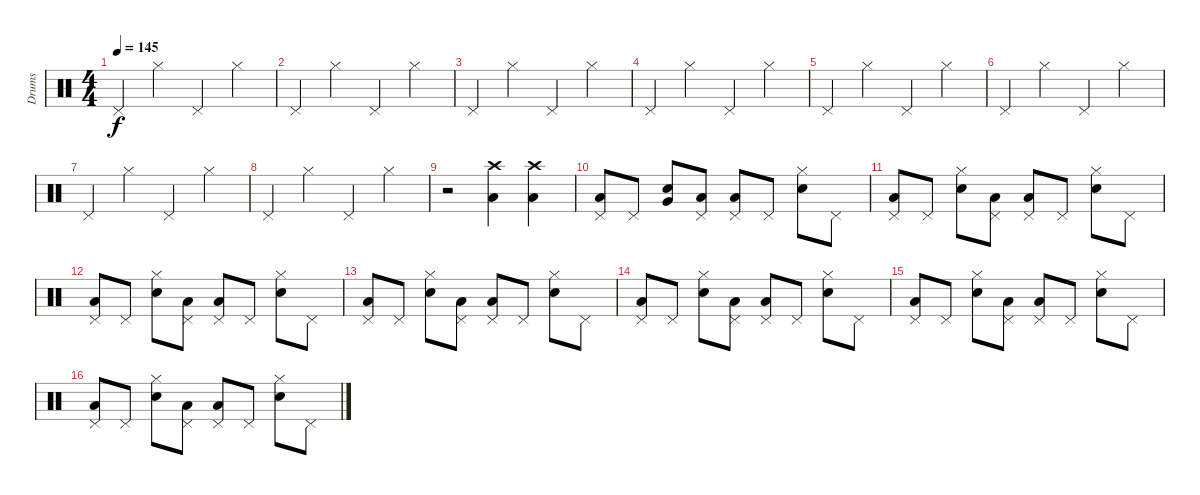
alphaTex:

\track ("Drums" "Drums") {instrument percussion}
\staff {score}
\articulation defaults
\ts (4 4)
\tempo 145
\clef neutral
\ks c "Pedal Hi-Hat (hit)".4{dy f} "Hi-Hat (closed)".4 "Pedal Hi-Hat (hit)".4 "Hi-Hat (closed)".4
|
"Pedal Hi-Hat (hit)".4 "Hi-Hat (closed)".4 "Pedal Hi-Hat (hit)".4 "Hi-Hat (closed)".4 |
"Pedal Hi-Hat (hit)".4 "Hi-Hat (closed)".4 "Pedal Hi-Hat (hit)".4 "Hi-Hat (closed)".4 |
"Pedal Hi-Hat (hit)".4 "Hi-Hat (closed)".4 "Pedal Hi-Hat (hit)".4 "Hi-Hat (closed)".4 |
"Pedal Hi-Hat (hit)".4 "Hi-Hat (closed)".4 "Pedal Hi-Hat (hit)".4 "Hi-Hat (closed)".4 |
"Pedal Hi-Hat (hit)".4 "Hi-Hat (closed)".4 "Pedal Hi-Hat (hit)".4 "Hi-Hat (closed)".4 |
"Pedal Hi-Hat (hit)".4 "Hi-Hat (closed)".4 "Pedal Hi-Hat (hit)".4 "Hi-Hat (closed)".4 |
"Pedal Hi-Hat (hit)".4 "Hi-Hat (closed)".4 "Pedal Hi-Hat (hit)".4 "Hi-Hat (closed)".4 |
r.2 ("Low Floor Tom (hit)" "Crash high (hit)").4 ("Low Floor Tom (hit)" "Crash high (hit)").4 |
("Low Floor Tom (hit)" "Pedal Hi-Hat (hit)").8 "Pedal Hi-Hat (hit)".8 ("Snare (hit) 2" "Very Low Tom (hit)").8 ("Low Floor Tom (hit)" "Pedal Hi-Hat (hit)").8 ("Low Floor Tom (hit)" "Pedal Hi-Hat (hit)").8 "Pedal Hi-Hat (hit)".8 ("Snare (hit) 2" "Hi-Hat (closed)").8 "Pedal Hi-Hat (hit)".8 |
("Low Floor Tom (hit)" "Pedal Hi-Hat (hit)").8 "Pedal Hi-Hat (hit)".8 ("Snare (hit) 2" "Hi-Hat (closed)").8 ("Low Floor Tom (hit)" "Pedal Hi-Hat (hit)").8 ("Low Floor Tom (hit)" "Pedal Hi-Hat (hit)").8 "Pedal Hi-Hat (hit)".8 ("Snare (hit) 2" "Hi-Hat (closed)").8 "Pedal Hi-Hat (hit)".8 |
("Low Floor Tom (hit)" "Pedal Hi-Hat (hit)").8 "Pedal Hi-Hat (hit)".8 ("Snare (hit) 2" "Hi-Hat (closed)").8 ("Low Floor Tom (hit)" "Pedal Hi-Hat (hit)").8 ("Low Floor Tom (hit)" "Pedal Hi-Hat (hit)").8 "Pedal Hi-Hat (hit)".8 ("Snare (hit) 2" "Hi-Hat (closed)").8 "Pedal Hi-Hat (hit)".8 |
("Low Floor Tom (hit)" "Pedal Hi-Hat (hit)").8 "Pedal Hi-Hat (hit)".8 ("Snare (hit) 2" "Hi-Hat (closed)").8 ("Low Floor Tom (hit)" "Pedal Hi-Hat (hit)").8 ("Low Floor Tom (hit)" "Pedal Hi-Hat (hit)").8 "Pedal Hi-Hat (hit)".8 ("Snare (hit) 2" "Hi-Hat (closed)").8 "Pedal Hi-Hat (hit)".8 |
("Low Floor Tom (hit)" "Pedal Hi-Hat (hit)").8 "Pedal Hi-Hat (hit)".8 ("Snare (hit) 2" "Hi-Hat (closed)").8 ("Low Floor Tom (hit)" "Pedal Hi-Hat (hit)").8 ("Low Floor Tom (hit)" "Pedal Hi-Hat (hit)").8 "Pedal Hi-Hat (hit)".8 ("Snare (hit) 2" "Hi-Hat (closed)").8 "Pedal Hi-Hat (hit)".8 |
("Low Floor Tom (hit)" "Pedal Hi-Hat (hit)").8 "Pedal Hi-Hat (hit)".8 ("Snare (hit) 2" "Hi-Hat (closed)").8 ("Low Floor Tom (hit)" "Pedal Hi-Hat (hit)").8 ("Low Floor Tom (hit)" "Pedal Hi-Hat (hit)").8 "Pedal Hi-Hat (hit)".8 ("Snare (hit) 2" "Hi-Hat (closed)").8 "Pedal Hi-Hat (hit)".8 |
("Low Floor Tom (hit)" "Pedal Hi-Hat (hit)").8 "Pedal Hi-Hat (hit)".8 ("Snare (hit) 2" "Hi-Hat (closed)").8 ("Low Floor Tom (hit)" "Pedal Hi-Hat (hit)").8 ("Low Floor Tom (hit)" "Pedal Hi-Hat (hit)").8 "Pedal Hi-Hat (hit)".8 ("Snare (hit) 2" "Hi-Hat (closed)").8 "Pedal Hi-Hat (hit)".8
